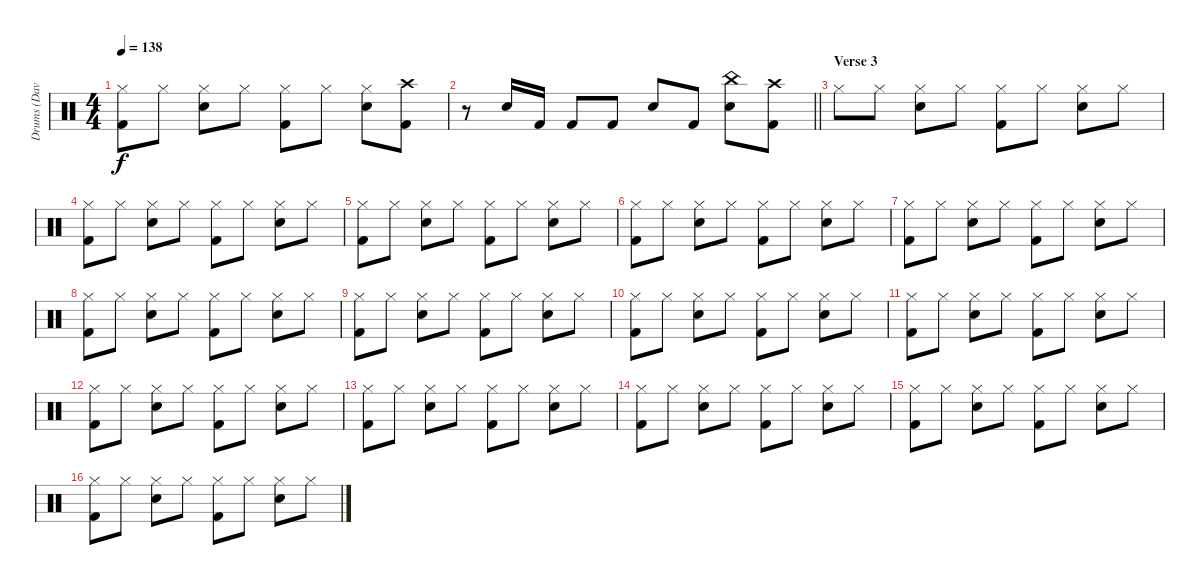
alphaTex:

\track ("Drums (Dave Holland)" "Drums (Dav") {instrument percussion}
\staff {score}
\articulation defaults
\ts (4 4)
\tempo 138
\clef neutral
\ks c
("Hi-Hat (closed)" "Kick (hit) 2").8{dy f} "Hi-Hat (closed)".8 ("Hi-Hat (closed)" "Snare (hit) 2").8 "Hi-Hat (closed)".8 ("Hi-Hat (closed)" "Kick (hit) 2").8 "Hi-Hat (closed)".8 ("Hi-Hat (closed)" "Snare (hit) 2").8 ("Crash high (hit)" "Kick (hit) 2").8 |
\barLineRight lightlight
r.8 "Snare (hit) 2".16 "Kick (hit) 2".16 "Kick (hit) 2".8 "Kick (hit) 2".8 "Snare (hit) 2".8 "Kick (hit) 2".8 ("China (hit)" "Snare (hit) 2").8 ("Crash high (hit)" "Kick (hit) 2").8 |
\section ("" "Verse 3")
"Hi-Hat (closed)".8 "Hi-Hat (closed)".8 ("Hi-Hat (closed)" "Snare (hit) 2").8 "Hi-Hat (closed)".8 ("Hi-Hat (closed)" "Kick (hit) 2").8 "Hi-Hat (closed)".8 ("Hi-Hat (closed)" "Snare (hit) 2").8 "Hi-Hat (closed)".8 |
("Hi-Hat (closed)" "Kick (hit) 2").8 "Hi-Hat (closed)".8 ("Hi-Hat (closed)" "Snare (hit) 2").8 "Hi-Hat (closed)".8 ("Hi-Hat (closed)" "Kick (hit) 2").8 "Hi-Hat (closed)".8 ("Hi-Hat (closed)" "Snare (hit) 2").8 "Hi-Hat (closed)".8 |
("Hi-Hat (closed)" "Kick (hit) 2").8 "Hi-Hat (closed)".8 ("Hi-Hat (closed)" "Snare (hit) 2").8 "Hi-Hat (closed)".8 ("Hi-Hat (closed)" "Kick (hit) 2").8 "Hi-Hat (closed)".8 ("Hi-Hat (closed)" "Snare (hit) 2").8 "Hi-Hat (closed)".8 |
("Hi-Hat (closed)" "Kick (hit) 2").8 "Hi-Hat (closed)".8 ("Hi-Hat (closed)" "Snare (hit) 2").8 "Hi-Hat (closed)".8 ("Hi-Hat (closed)" "Kick (hit) 2").8 "Hi-Hat (closed)".8 ("Hi-Hat (closed)" "Snare (hit) 2").8 "Hi-Hat (closed)".8 |
("Hi-Hat (closed)" "Kick (hit) 2").8 "Hi-Hat (closed)".8 ("Hi-Hat (closed)" "Snare (hit) 2").8 "Hi-Hat (closed)".8 ("Hi-Hat (closed)" "Kick (hit) 2").8 "Hi-Hat (closed)".8 ("Hi-Hat (closed)" "Snare (hit) 2").8 "Hi-Hat (closed)".8 |
("Hi-Hat (closed)" "Kick (hit) 2").8 "Hi-Hat (closed)".8 ("Hi-Hat (closed)" "Snare (hit) 2").8 "Hi-Hat (closed)".8 ("Hi-Hat (closed)" "Kick (hit) 2").8 "Hi-Hat (closed)".8 ("Hi-Hat (closed)" "Snare (hit) 2").8 "Hi-Hat (closed)".8 |
("Hi-Hat (closed)" "Kick (hit) 2").8 "Hi-Hat (closed)".8 ("Hi-Hat (closed)" "Snare (hit) 2").8 "Hi-Hat (closed)".8 ("Hi-Hat (closed)" "Kick (hit) 2").8 "Hi-Hat (closed)".8 ("Hi-Hat (closed)" "Snare (hit) 2").8 "Hi-Hat (closed)".8 |
("Hi-Hat (closed)" "Kick (hit) 2").8 "Hi-Hat (closed)".8 ("Hi-Hat (closed)" "Snare (hit) 2").8 "Hi-Hat (closed)".8 ("Hi-Hat (closed)" "Kick (hit) 2").8 "Hi-Hat (closed)".8 ("Hi-Hat (closed)" "Snare (hit) 2").8 "Hi-Hat (closed)".8 |
("Hi-Hat (closed)" "Kick (hit) 2").8 "Hi-Hat (closed)".8 ("Hi-Hat (closed)" "Snare (hit) 2").8 "Hi-Hat (closed)".8 ("Hi-Hat (closed)" "Kick (hit) 2").8 "Hi-Hat (closed)".8 ("Hi-Hat (closed)" "Snare (hit) 2").8 "Hi-Hat (closed)".8 |
("Hi-Hat (closed)" "Kick (hit) 2").8 "Hi-Hat (closed)".8 ("Hi-Hat (closed)" "Snare (hit) 2").8 "Hi-Hat (closed)".8 ("Hi-Hat (closed)" "Kick (hit) 2").8 "Hi-Hat (closed)".8 ("Hi-Hat (closed)" "Snare (hit) 2").8 "Hi-Hat (closed)".8 |
("Hi-Hat (closed)" "Kick (hit) 2").8 "Hi-Hat (closed)".8 ("Hi-Hat (closed)" "Snare (hit) 2").8 "Hi-Hat (closed)".8 ("Hi-Hat (closed)" "Kick (hit) 2").8 "Hi-Hat (closed)".8 ("Hi-Hat (closed)" "Snare (hit) 2").8 "Hi-Hat (closed)".8 |
("Hi-Hat (closed)" "Kick (hit) 2").8 "Hi-Hat (closed)".8 ("Hi-Hat (closed)" "Snare (hit) 2").8 "Hi-Hat (closed)".8 ("Hi-Hat (closed)" "Kick (hit) 2").8 "Hi-Hat (closed)".8 ("Hi-Hat (closed)" "Snare (hit) 2").8 "Hi-Hat (closed)".8 |
("Hi-Hat (closed)" "Kick (hit) 2").8 "Hi-Hat (closed)".8 ("Hi-Hat (closed)" "Snare (hit) 2").8 "Hi-Hat (closed)".8 ("Hi-Hat (closed)" "Kick (hit) 2").8 "Hi-Hat (closed)".8 ("Hi-Hat (closed)" "Snare (hit) 2").8 "Hi-Hat (closed)".8 |
("Hi-Hat (closed)" "Kick (hit) 2").8 "Hi-Hat (closed)".8 ("Hi-Hat (closed)" "Snare (hit) 2").8 "Hi-Hat (closed)".8 ("Hi-Hat (closed)" "Kick (hit) 2").8 "Hi-Hat (closed)".8 ("Hi-Hat (closed)" "Snare (hit) 2").8 "Hi-Hat (closed)".8
